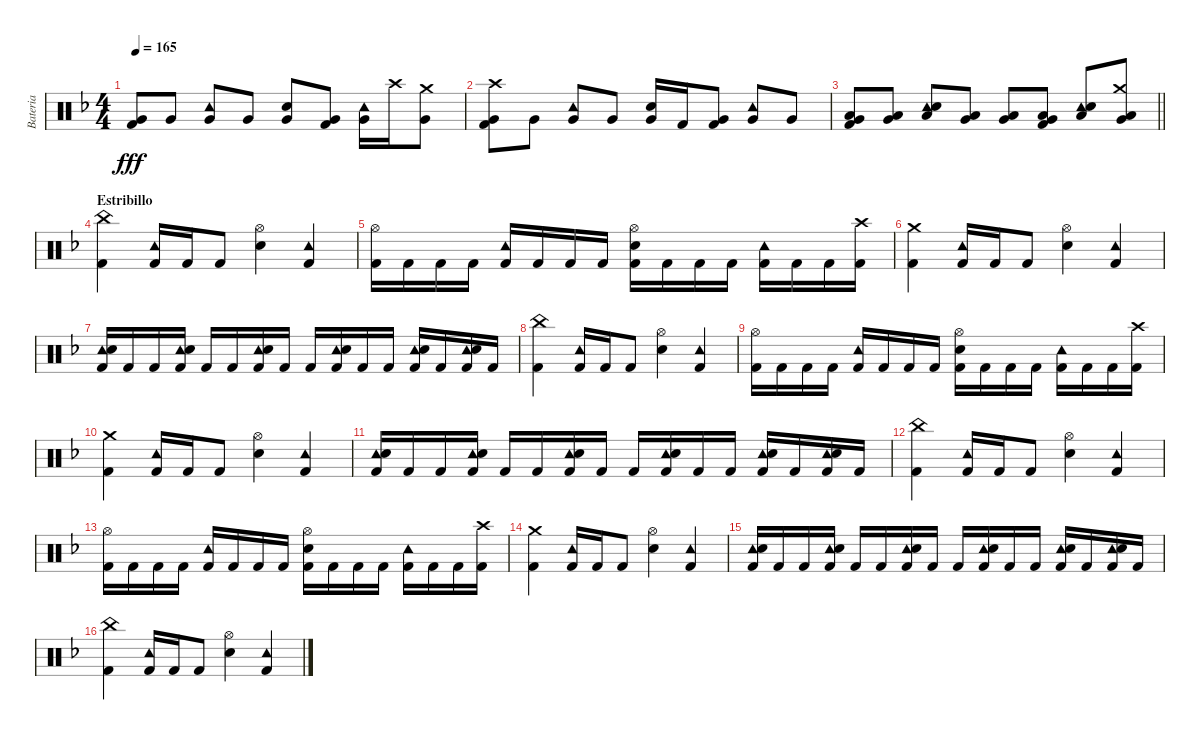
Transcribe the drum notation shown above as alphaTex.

\track ("Bateria" "Bateria") {instrument percussion}
\staff {score}
\articulation defaults
\ts (4 4)
\tempo 165
\clef neutral
\ks f
("Very Low Tom (hit)" "Kick (hit) 2").8{dy fff} "Very Low Tom (hit)".8 ("Tambourine (hit)" "Very Low Tom (hit)").8 "Very Low Tom (hit)".8 ("Snare (hit) 2" "Very Low Tom (hit)").8 ("Very Low Tom (hit)" "Kick (hit) 2").8 ("Tambourine (hit)" "Very Low Tom (hit)").16 "Crash high (hit)".16 ("Crash medium (hit)" "Very Low Tom (hit)").8 |
("Crash high (hit)" "Very Low Tom (hit)" "Kick (hit) 2").8 "Very Low Tom (hit)".8 ("Tambourine (hit)" "Very Low Tom (hit)").8 "Very Low Tom (hit)".8 ("Snare (hit) 2" "Very Low Tom (hit)").16 "Kick (hit) 2".16 ("Very Low Tom (hit)" "Kick (hit) 2").8 ("Tambourine (hit)" "Very Low Tom (hit)").8 "Very Low Tom (hit)".8 |
\barLineRight lightlight
("Low Floor Tom (hit)" "Very Low Tom (hit)" "Kick (hit) 2").8 ("Low Floor Tom (hit)" "Very Low Tom (hit)").8 ("Low Floor Tom (hit)" "Tambourine (hit)" "Snare (hit) 2").8 ("Low Floor Tom (hit)" "Very Low Tom (hit)").8 ("Low Floor Tom (hit)" "Very Low Tom (hit)").8 ("Low Floor Tom (hit)" "Very Low Tom (hit)" "Kick (hit) 2").8 ("Low Floor Tom (hit)" "Tambourine (hit)" "Snare (hit) 2").8 ("Crash medium (hit)" "Low Floor Tom (hit)" "Very Low Tom (hit)").8 |
\section ("" "Estribillo")
("China (hit)" "Kick (hit) 2").4 ("Tambourine (hit)" "Kick (hit) 2").16 "Kick (hit) 2".16 "Kick (hit) 2".8 ("Hi-Hat (open)" "Snare (hit) 2").4 ("Tambourine (hit)" "Kick (hit) 2").4 |
("Hi-Hat (open)" "Kick (hit) 2").16 "Kick (hit) 2".16 "Kick (hit) 2".16 "Kick (hit) 2".16 ("Tambourine (hit)" "Kick (hit) 2").16 "Kick (hit) 2".16 "Kick (hit) 2".16 "Kick (hit) 2".16 ("Hi-Hat (open)" "Snare (hit) 2" "Kick (hit) 2").16 "Kick (hit) 2".16 "Kick (hit) 2".16 "Kick (hit) 2".16 ("Tambourine (hit)" "Kick (hit) 2").16 "Kick (hit) 2".16 "Kick (hit) 2".16 ("Crash high (hit)" "Kick (hit) 2").16 |
("Crash medium (hit)" "Kick (hit) 2").4 ("Tambourine (hit)" "Kick (hit) 2").16 "Kick (hit) 2".16 "Kick (hit) 2".8 ("Hi-Hat (open)" "Snare (hit) 2").4 ("Tambourine (hit)" "Kick (hit) 2").4 |
("Tambourine (hit)" "Snare (hit) 2" "Kick (hit) 2").16 "Kick (hit) 2".16 "Kick (hit) 2".16 ("Tambourine (hit)" "Snare (hit) 2" "Kick (hit) 2").16 "Kick (hit) 2".16 "Kick (hit) 2".16 ("Tambourine (hit)" "Snare (hit) 2" "Kick (hit) 2").16 "Kick (hit) 2".16 "Kick (hit) 2".16 ("Tambourine (hit)" "Snare (hit) 2" "Kick (hit) 2").16 "Kick (hit) 2".16 "Kick (hit) 2".16 ("Tambourine (hit)" "Snare (hit) 2" "Kick (hit) 2").16 "Kick (hit) 2".16 ("Tambourine (hit)" "Snare (hit) 2" "Kick (hit) 2").16 "Kick (hit) 2".16 |
("China (hit)" "Kick (hit) 2").4 ("Tambourine (hit)" "Kick (hit) 2").16 "Kick (hit) 2".16 "Kick (hit) 2".8 ("Hi-Hat (open)" "Snare (hit) 2").4 ("Tambourine (hit)" "Kick (hit) 2").4 |
("Hi-Hat (open)" "Kick (hit) 2").16 "Kick (hit) 2".16 "Kick (hit) 2".16 "Kick (hit) 2".16 ("Tambourine (hit)" "Kick (hit) 2").16 "Kick (hit) 2".16 "Kick (hit) 2".16 "Kick (hit) 2".16 ("Hi-Hat (open)" "Snare (hit) 2" "Kick (hit) 2").16 "Kick (hit) 2".16 "Kick (hit) 2".16 "Kick (hit) 2".16 ("Tambourine (hit)" "Kick (hit) 2").16 "Kick (hit) 2".16 "Kick (hit) 2".16 ("Crash high (hit)" "Kick (hit) 2").16 |
("Crash medium (hit)" "Kick (hit) 2").4 ("Tambourine (hit)" "Kick (hit) 2").16 "Kick (hit) 2".16 "Kick (hit) 2".8 ("Hi-Hat (open)" "Snare (hit) 2").4 ("Tambourine (hit)" "Kick (hit) 2").4 |
("Tambourine (hit)" "Snare (hit) 2" "Kick (hit) 2").16 "Kick (hit) 2".16 "Kick (hit) 2".16 ("Tambourine (hit)" "Snare (hit) 2" "Kick (hit) 2").16 "Kick (hit) 2".16 "Kick (hit) 2".16 ("Tambourine (hit)" "Snare (hit) 2" "Kick (hit) 2").16 "Kick (hit) 2".16 "Kick (hit) 2".16 ("Tambourine (hit)" "Snare (hit) 2" "Kick (hit) 2").16 "Kick (hit) 2".16 "Kick (hit) 2".16 ("Tambourine (hit)" "Snare (hit) 2" "Kick (hit) 2").16 "Kick (hit) 2".16 ("Tambourine (hit)" "Snare (hit) 2" "Kick (hit) 2").16 "Kick (hit) 2".16 |
("China (hit)" "Kick (hit) 2").4 ("Tambourine (hit)" "Kick (hit) 2").16 "Kick (hit) 2".16 "Kick (hit) 2".8 ("Hi-Hat (open)" "Snare (hit) 2").4 ("Tambourine (hit)" "Kick (hit) 2").4 |
("Hi-Hat (open)" "Kick (hit) 2").16 "Kick (hit) 2".16 "Kick (hit) 2".16 "Kick (hit) 2".16 ("Tambourine (hit)" "Kick (hit) 2").16 "Kick (hit) 2".16 "Kick (hit) 2".16 "Kick (hit) 2".16 ("Hi-Hat (open)" "Snare (hit) 2" "Kick (hit) 2").16 "Kick (hit) 2".16 "Kick (hit) 2".16 "Kick (hit) 2".16 ("Tambourine (hit)" "Kick (hit) 2").16 "Kick (hit) 2".16 "Kick (hit) 2".16 ("Crash high (hit)" "Kick (hit) 2").16 |
("Crash medium (hit)" "Kick (hit) 2").4 ("Tambourine (hit)" "Kick (hit) 2").16 "Kick (hit) 2".16 "Kick (hit) 2".8 ("Hi-Hat (open)" "Snare (hit) 2").4 ("Tambourine (hit)" "Kick (hit) 2").4 |
("Tambourine (hit)" "Snare (hit) 2" "Kick (hit) 2").16 "Kick (hit) 2".16 "Kick (hit) 2".16 ("Tambourine (hit)" "Snare (hit) 2" "Kick (hit) 2").16 "Kick (hit) 2".16 "Kick (hit) 2".16 ("Tambourine (hit)" "Snare (hit) 2" "Kick (hit) 2").16 "Kick (hit) 2".16 "Kick (hit) 2".16 ("Tambourine (hit)" "Snare (hit) 2" "Kick (hit) 2").16 "Kick (hit) 2".16 "Kick (hit) 2".16 ("Tambourine (hit)" "Snare (hit) 2" "Kick (hit) 2").16 "Kick (hit) 2".16 ("Tambourine (hit)" "Snare (hit) 2" "Kick (hit) 2").16 "Kick (hit) 2".16 |
("China (hit)" "Kick (hit) 2").4 ("Tambourine (hit)" "Kick (hit) 2").16 "Kick (hit) 2".16 "Kick (hit) 2".8 ("Hi-Hat (open)" "Snare (hit) 2").4 ("Tambourine (hit)" "Kick (hit) 2").4
